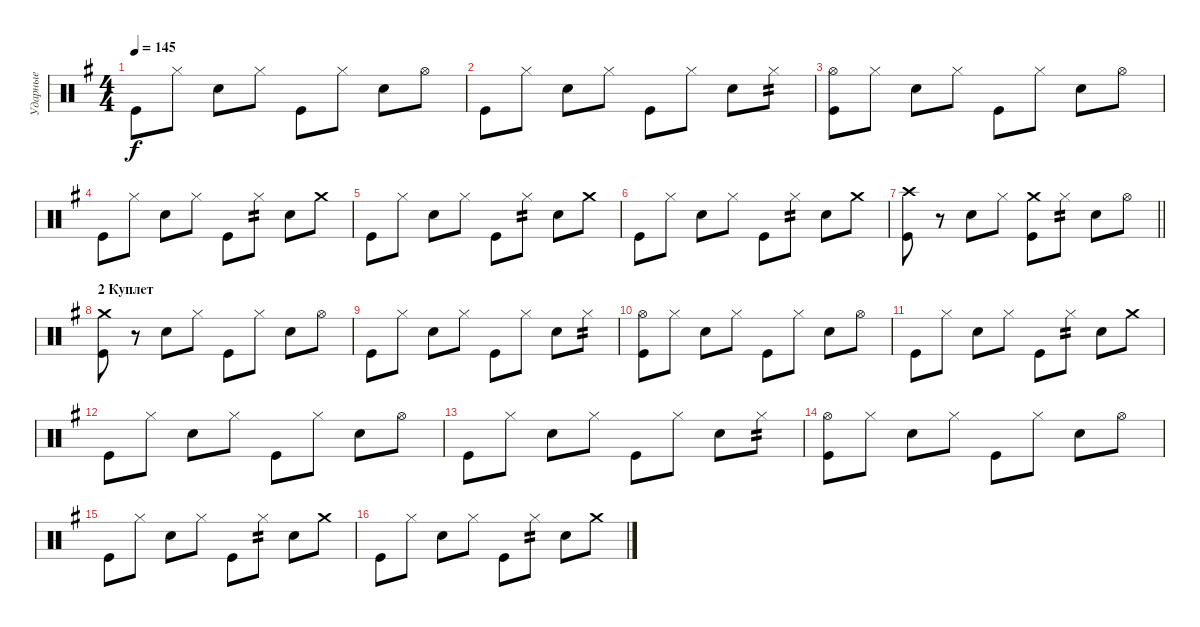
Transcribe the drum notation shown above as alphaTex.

\track ("Ударные" "Ударные") {instrument percussion}
\staff {score}
\articulation defaults
\ts (4 4)
\tempo 145
\clef neutral
\ks eminor "Kick (hit)".8{dy f} "Hi-Hat (closed)".8 "Snare (hit) 2".8 "Hi-Hat (closed)".8 "Kick (hit)".8 "Hi-Hat (closed)".8 "Snare (hit) 2".8 "Hi-Hat (open)".8
|
"Kick (hit)".8 "Hi-Hat (closed)".8 "Snare (hit) 2".8 "Hi-Hat (closed)".8 "Kick (hit)".8 "Hi-Hat (closed)".8 "Snare (hit) 2".8 "Hi-Hat (closed)".8{tp 2} |
("Hi-Hat (open)" "Kick (hit)").8 "Hi-Hat (closed)".8 "Snare (hit) 2".8 "Hi-Hat (closed)".8 "Kick (hit)".8 "Hi-Hat (closed)".8 "Snare (hit) 2".8 "Hi-Hat (open)".8 |
"Kick (hit)".8 "Hi-Hat (closed)".8 "Snare (hit) 2".8 "Hi-Hat (closed)".8 "Kick (hit)".8 "Hi-Hat (closed)".8{tp 2} "Snare (hit) 2".8 "Crash medium (hit)".8 |
"Kick (hit)".8 "Hi-Hat (closed)".8 "Snare (hit) 2".8 "Hi-Hat (closed)".8 "Kick (hit)".8 "Hi-Hat (closed)".8{tp 2} "Snare (hit) 2".8 "Crash medium (hit)".8 |
"Kick (hit)".8 "Hi-Hat (closed)".8 "Snare (hit) 2".8 "Hi-Hat (closed)".8 "Kick (hit)".8 "Hi-Hat (closed)".8{tp 2} "Snare (hit) 2".8 "Crash medium (hit)".8 |
\barLineRight lightlight
("Crash high (hit)" "Kick (hit)").8 r.8 "Snare (hit) 2".8 "Hi-Hat (closed)".8 ("Crash medium (hit)" "Kick (hit)").8 "Hi-Hat (closed)".8{tp 2} "Snare (hit) 2".8 "Hi-Hat (open)".8 |
\section ("" "2 Куплет")
("Crash medium (hit)" "Kick (hit)").8 r.8 "Snare (hit) 2".8 "Hi-Hat (closed)".8 "Kick (hit)".8 "Hi-Hat (closed)".8 "Snare (hit) 2".8 "Hi-Hat (open)".8 |
"Kick (hit)".8 "Hi-Hat (closed)".8 "Snare (hit) 2".8 "Hi-Hat (closed)".8 "Kick (hit)".8 "Hi-Hat (closed)".8 "Snare (hit) 2".8 "Hi-Hat (closed)".8{tp 2} |
("Hi-Hat (open)" "Kick (hit)").8 "Hi-Hat (closed)".8 "Snare (hit) 2".8 "Hi-Hat (closed)".8 "Kick (hit)".8 "Hi-Hat (closed)".8 "Snare (hit) 2".8 "Hi-Hat (open)".8 |
"Kick (hit)".8 "Hi-Hat (closed)".8 "Snare (hit) 2".8 "Hi-Hat (closed)".8 "Kick (hit)".8 "Hi-Hat (closed)".8{tp 2} "Snare (hit) 2".8 "Crash medium (hit)".8 |
"Kick (hit)".8 "Hi-Hat (closed)".8 "Snare (hit) 2".8 "Hi-Hat (closed)".8 "Kick (hit)".8 "Hi-Hat (closed)".8 "Snare (hit) 2".8 "Hi-Hat (open)".8 |
"Kick (hit)".8 "Hi-Hat (closed)".8 "Snare (hit) 2".8 "Hi-Hat (closed)".8 "Kick (hit)".8 "Hi-Hat (closed)".8 "Snare (hit) 2".8 "Hi-Hat (closed)".8{tp 2} |
("Hi-Hat (open)" "Kick (hit)").8 "Hi-Hat (closed)".8 "Snare (hit) 2".8 "Hi-Hat (closed)".8 "Kick (hit)".8 "Hi-Hat (closed)".8 "Snare (hit) 2".8 "Hi-Hat (open)".8 |
"Kick (hit)".8 "Hi-Hat (closed)".8 "Snare (hit) 2".8 "Hi-Hat (closed)".8 "Kick (hit)".8 "Hi-Hat (closed)".8{tp 2} "Snare (hit) 2".8 "Crash medium (hit)".8 |
"Kick (hit)".8 "Hi-Hat (closed)".8 "Snare (hit) 2".8 "Hi-Hat (closed)".8 "Kick (hit)".8 "Hi-Hat (closed)".8{tp 2} "Snare (hit) 2".8 "Crash medium (hit)".8
